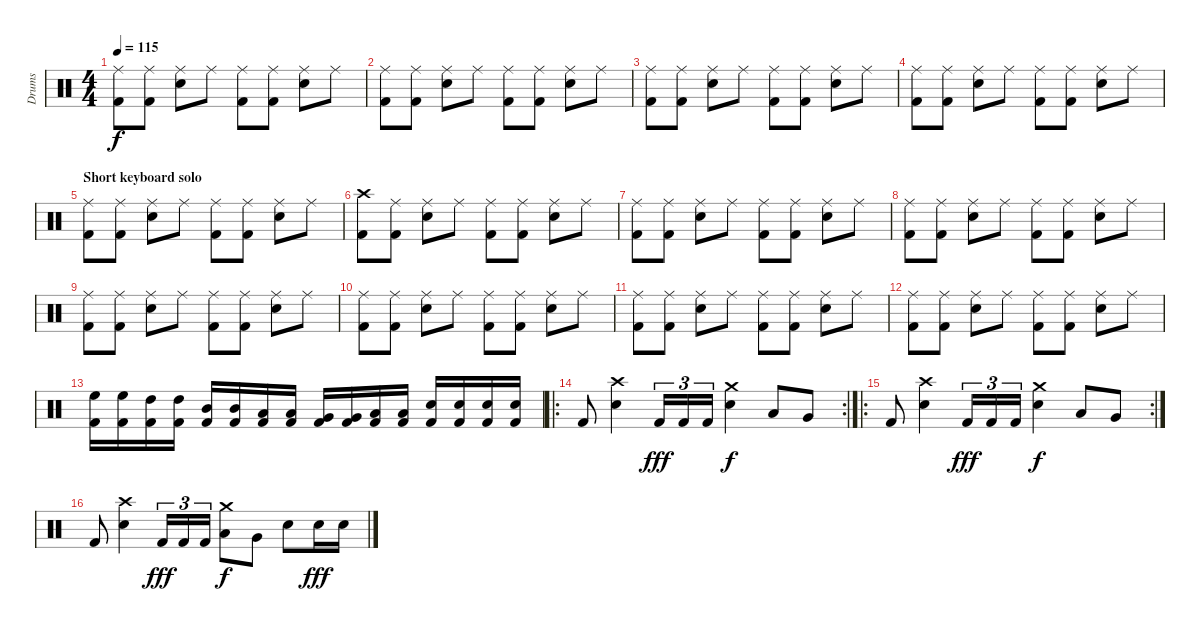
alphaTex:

\track ("Drums" "Drums") {instrument percussion}
\staff {score}
\articulation defaults
\ts (4 4)
\tempo 115
\clef neutral
\ks c
("Ride (middle)" "Kick (hit) 2").8{dy f} ("Ride (middle)" "Kick (hit) 2").8 ("Ride (middle)" "Electric Snare (hit)").8 "Ride (middle)".8 ("Ride (middle)" "Kick (hit) 2").8 ("Ride (middle)" "Kick (hit) 2").8 ("Ride (middle)" "Electric Snare (hit)").8 "Ride (middle)".8 |
("Ride (middle)" "Kick (hit) 2").8 ("Ride (middle)" "Kick (hit) 2").8 ("Ride (middle)" "Electric Snare (hit)").8 "Ride (middle)".8 ("Ride (middle)" "Kick (hit) 2").8 ("Ride (middle)" "Kick (hit) 2").8 ("Ride (middle)" "Electric Snare (hit)").8 "Ride (middle)".8 |
("Ride (middle)" "Kick (hit) 2").8 ("Ride (middle)" "Kick (hit) 2").8 ("Ride (middle)" "Electric Snare (hit)").8 "Ride (middle)".8 ("Ride (middle)" "Kick (hit) 2").8 ("Ride (middle)" "Kick (hit) 2").8 ("Ride (middle)" "Electric Snare (hit)").8 "Ride (middle)".8 |
("Ride (middle)" "Kick (hit) 2").8 ("Ride (middle)" "Kick (hit) 2").8 ("Ride (middle)" "Electric Snare (hit)").8 "Ride (middle)".8 ("Ride (middle)" "Kick (hit) 2").8 ("Ride (middle)" "Kick (hit) 2").8 ("Ride (middle)" "Electric Snare (hit)").8 "Ride (middle)".8 |
\section ("" "Short keyboard solo")
("Ride (middle)" "Kick (hit) 2").8 ("Ride (middle)" "Kick (hit) 2").8 ("Ride (middle)" "Electric Snare (hit)").8 "Ride (middle)".8 ("Ride (middle)" "Kick (hit) 2").8 ("Ride (middle)" "Kick (hit) 2").8 ("Ride (middle)" "Electric Snare (hit)").8 "Ride (middle)".8 |
("Crash high (hit)" "Kick (hit) 2").8 ("Ride (middle)" "Kick (hit) 2").8 ("Ride (middle)" "Electric Snare (hit)").8 "Ride (middle)".8 ("Ride (middle)" "Kick (hit) 2").8 ("Ride (middle)" "Kick (hit) 2").8 ("Ride (middle)" "Electric Snare (hit)").8 "Ride (middle)".8 |
("Ride (middle)" "Kick (hit) 2").8 ("Ride (middle)" "Kick (hit) 2").8 ("Ride (middle)" "Electric Snare (hit)").8 "Ride (middle)".8 ("Ride (middle)" "Kick (hit) 2").8 ("Ride (middle)" "Kick (hit) 2").8 ("Ride (middle)" "Electric Snare (hit)").8 "Ride (middle)".8 |
("Ride (middle)" "Kick (hit) 2").8 ("Ride (middle)" "Kick (hit) 2").8 ("Ride (middle)" "Electric Snare (hit)").8 "Ride (middle)".8 ("Ride (middle)" "Kick (hit) 2").8 ("Ride (middle)" "Kick (hit) 2").8 ("Ride (middle)" "Electric Snare (hit)").8 "Ride (middle)".8 |
("Ride (middle)" "Kick (hit) 2").8 ("Ride (middle)" "Kick (hit) 2").8 ("Ride (middle)" "Electric Snare (hit)").8 "Ride (middle)".8 ("Ride (middle)" "Kick (hit) 2").8 ("Ride (middle)" "Kick (hit) 2").8 ("Ride (middle)" "Electric Snare (hit)").8 "Ride (middle)".8 |
("Ride (middle)" "Kick (hit) 2").8 ("Ride (middle)" "Kick (hit) 2").8 ("Ride (middle)" "Electric Snare (hit)").8 "Ride (middle)".8 ("Ride (middle)" "Kick (hit) 2").8 ("Ride (middle)" "Kick (hit) 2").8 ("Ride (middle)" "Electric Snare (hit)").8 "Ride (middle)".8 |
("Ride (middle)" "Kick (hit) 2").8 ("Ride (middle)" "Kick (hit) 2").8 ("Ride (middle)" "Electric Snare (hit)").8 "Ride (middle)".8 ("Ride (middle)" "Kick (hit) 2").8 ("Ride (middle)" "Kick (hit) 2").8 ("Ride (middle)" "Electric Snare (hit)").8 "Ride (middle)".8 |
("Ride (middle)" "Kick (hit) 2").8 ("Ride (middle)" "Kick (hit) 2").8 ("Ride (middle)" "Electric Snare (hit)").8 "Ride (middle)".8 ("Ride (middle)" "Kick (hit) 2").8 ("Ride (middle)" "Kick (hit) 2").8 ("Ride (middle)" "Electric Snare (hit)").8 "Ride (middle)".8 |
("Kick (hit) 2" "High Floor Tom (hit)").16 ("Kick (hit) 2" "High Floor Tom (hit)").16 ("Kick (hit) 2" "High Tom (hit)").16 ("Kick (hit) 2" "High Tom (hit)").16 ("Kick (hit) 2" "Mid Tom (hit)").16 ("Kick (hit) 2" "Mid Tom (hit)").16 ("Kick (hit) 2" "Low Tom (hit)").16 ("Kick (hit) 2" "Low Tom (hit)").16 ("Kick (hit) 2" "Very Low Tom (hit)").16 ("Kick (hit) 2" "Very Low Tom (hit)").16 ("Kick (hit) 2" "Low Floor Tom (hit)").16 ("Kick (hit) 2" "Low Floor Tom (hit)").16 ("Kick (hit) 2" "Electric Snare (hit)").16 ("Kick (hit) 2" "Electric Snare (hit)").16 ("Kick (hit) 2" "Electric Snare (hit)").16 ("Kick (hit) 2" "Electric Snare (hit)").16 |
\ro
\rc 2 "Kick (hit) 2".8
("Crash high (hit)" "Electric Snare (hit)").4 "Kick (hit) 2".16{tu (3 2) dy fff} "Kick (hit) 2".16{tu (3 2)} "Kick (hit) 2".16{tu (3 2)} ("Crash medium (hit)" "Electric Snare (hit)").4{dy f} "Low Floor Tom (hit)".8 "Very Low Tom (hit)".8 |
\ro
\rc 2 "Kick (hit) 2".8
("Crash high (hit)" "Electric Snare (hit)").4 "Kick (hit) 2".16{tu (3 2) dy fff} "Kick (hit) 2".16{tu (3 2)} "Kick (hit) 2".16{tu (3 2)} ("Crash medium (hit)" "Electric Snare (hit)").4{dy f} "Low Floor Tom (hit)".8 "Very Low Tom (hit)".8 |
"Kick (hit) 2".8 ("Crash high (hit)" "Electric Snare (hit)").4 "Kick (hit) 2".16{tu (3 2) dy fff} "Kick (hit) 2".16{tu (3 2)} "Kick (hit) 2".16{tu (3 2)} ("Crash medium (hit)" "Low Floor Tom (hit)").8{dy f} "Very Low Tom (hit)".8 "Electric Snare (hit)".8 "Electric Snare (hit)".16{dy fff} "Electric Snare (hit)".16
